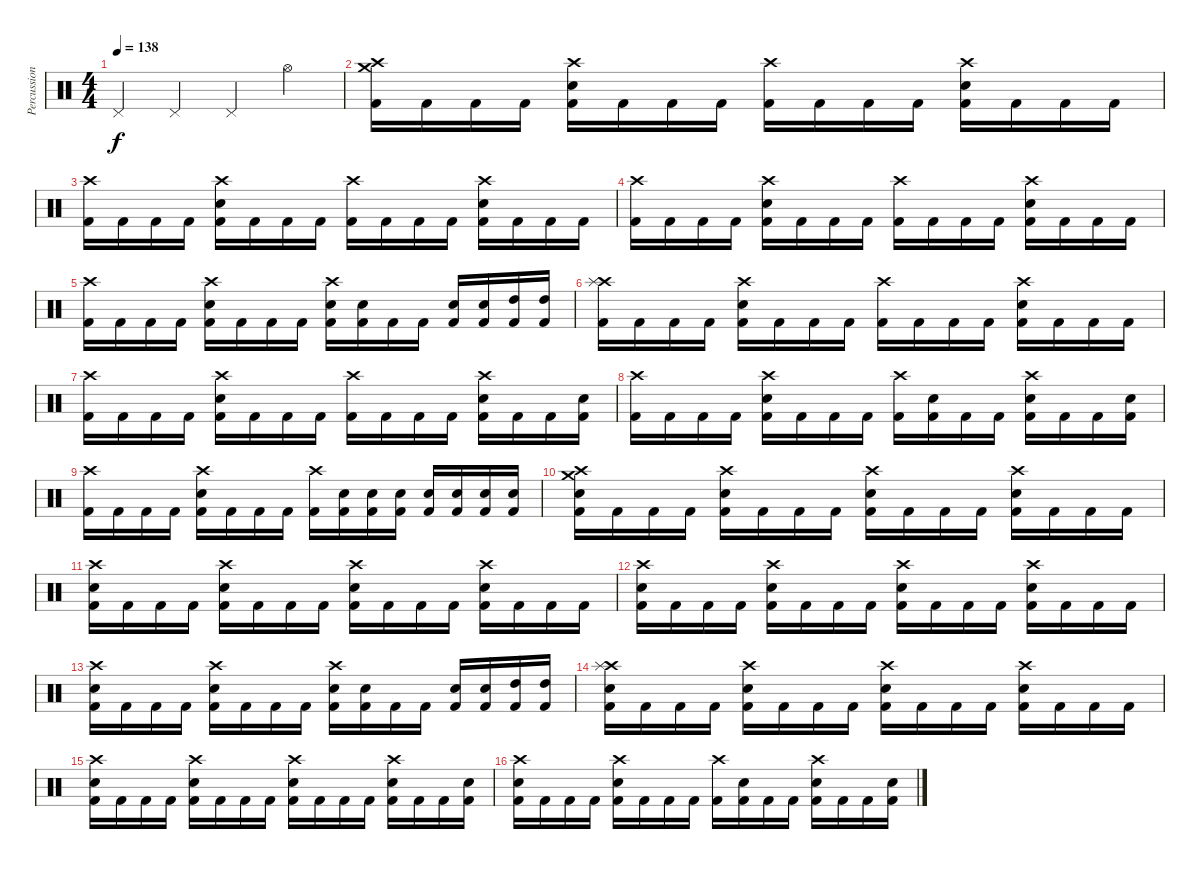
\track ("Percussion" "Percussion") {instrument percussion}
\staff {score}
\articulation defaults
\ts (4 4)
\tempo 138
\clef neutral
\ks c "Pedal Hi-Hat (hit)".4{dy f} "Pedal Hi-Hat (hit)".4 "Pedal Hi-Hat (hit)".4 "Hi-Hat (open)".4
|
("Crash high (hit)" "Crash medium (hit)" "Kick (hit) 2").16 "Kick (hit) 2".16 "Kick (hit) 2".16 "Kick (hit) 2".16 ("Crash high (hit)" "Electric Snare (hit)" "Kick (hit) 2").16 "Kick (hit) 2".16 "Kick (hit) 2".16 "Kick (hit) 2".16 ("Crash high (hit)" "Kick (hit) 2").16 "Kick (hit) 2".16 "Kick (hit) 2".16 "Kick (hit) 2".16 ("Crash high (hit)" "Electric Snare (hit)" "Kick (hit) 2").16 "Kick (hit) 2".16 "Kick (hit) 2".16 "Kick (hit) 2".16 |
("Crash high (hit)" "Kick (hit) 2").16 "Kick (hit) 2".16 "Kick (hit) 2".16 "Kick (hit) 2".16 ("Crash high (hit)" "Electric Snare (hit)" "Kick (hit) 2").16 "Kick (hit) 2".16 "Kick (hit) 2".16 "Kick (hit) 2".16 ("Crash high (hit)" "Kick (hit) 2").16 "Kick (hit) 2".16 "Kick (hit) 2".16 "Kick (hit) 2".16 ("Crash high (hit)" "Electric Snare (hit)" "Kick (hit) 2").16 "Kick (hit) 2".16 "Kick (hit) 2".16 "Kick (hit) 2".16 |
("Crash high (hit)" "Kick (hit) 2").16 "Kick (hit) 2".16 "Kick (hit) 2".16 "Kick (hit) 2".16 ("Crash high (hit)" "Electric Snare (hit)" "Kick (hit) 2").16 "Kick (hit) 2".16 "Kick (hit) 2".16 "Kick (hit) 2".16 ("Crash high (hit)" "Kick (hit) 2").16 "Kick (hit) 2".16 "Kick (hit) 2".16 "Kick (hit) 2".16 ("Crash high (hit)" "Electric Snare (hit)" "Kick (hit) 2").16 "Kick (hit) 2".16 "Kick (hit) 2".16 "Kick (hit) 2".16 |
("Crash high (hit)" "Kick (hit) 2").16 "Kick (hit) 2".16 "Kick (hit) 2".16 "Kick (hit) 2".16 ("Crash high (hit)" "Electric Snare (hit)" "Kick (hit) 2").16 "Kick (hit) 2".16 "Kick (hit) 2".16 "Kick (hit) 2".16 ("Crash high (hit)" "Electric Snare (hit)" "Kick (hit) 2").16 ("Electric Snare (hit)" "Kick (hit) 2").16 "Kick (hit) 2".16 "Kick (hit) 2".16 ("Electric Snare (hit)" "Kick (hit) 2").16 ("Electric Snare (hit)" "Kick (hit) 2").16 ("High Tom (hit)" "Kick (hit) 2").16 ("High Tom (hit)" "Kick (hit) 2").16 |
("Crash high (hit)" "Splash (hit)" "Kick (hit) 2").16 "Kick (hit) 2".16 "Kick (hit) 2".16 "Kick (hit) 2".16 ("Crash high (hit)" "Electric Snare (hit)" "Kick (hit) 2").16 "Kick (hit) 2".16 "Kick (hit) 2".16 "Kick (hit) 2".16 ("Crash high (hit)" "Kick (hit) 2").16 "Kick (hit) 2".16 "Kick (hit) 2".16 "Kick (hit) 2".16 ("Crash high (hit)" "Electric Snare (hit)" "Kick (hit) 2").16 "Kick (hit) 2".16 "Kick (hit) 2".16 "Kick (hit) 2".16 |
("Crash high (hit)" "Kick (hit) 2").16 "Kick (hit) 2".16 "Kick (hit) 2".16 "Kick (hit) 2".16 ("Crash high (hit)" "Electric Snare (hit)" "Kick (hit) 2").16 "Kick (hit) 2".16 "Kick (hit) 2".16 "Kick (hit) 2".16 ("Crash high (hit)" "Kick (hit) 2").16 "Kick (hit) 2".16 "Kick (hit) 2".16 "Kick (hit) 2".16 ("Crash high (hit)" "Electric Snare (hit)" "Kick (hit) 2").16 "Kick (hit) 2".16 "Kick (hit) 2".16 ("Electric Snare (hit)" "Kick (hit) 2").16 |
("Crash high (hit)" "Kick (hit) 2").16 "Kick (hit) 2".16 "Kick (hit) 2".16 "Kick (hit) 2".16 ("Crash high (hit)" "Electric Snare (hit)" "Kick (hit) 2").16 "Kick (hit) 2".16 "Kick (hit) 2".16 "Kick (hit) 2".16 ("Crash high (hit)" "Kick (hit) 2").16 ("Electric Snare (hit)" "Kick (hit) 2").16 "Kick (hit) 2".16 "Kick (hit) 2".16 ("Crash high (hit)" "Electric Snare (hit)" "Kick (hit) 2").16 "Kick (hit) 2".16 "Kick (hit) 2".16 ("Electric Snare (hit)" "Kick (hit) 2").16 |
("Crash high (hit)" "Kick (hit) 2").16 "Kick (hit) 2".16 "Kick (hit) 2".16 "Kick (hit) 2".16 ("Crash high (hit)" "Electric Snare (hit)" "Kick (hit) 2").16 "Kick (hit) 2".16 "Kick (hit) 2".16 "Kick (hit) 2".16 ("Crash high (hit)" "Kick (hit) 2").16 ("Electric Snare (hit)" "Kick (hit) 2").16 ("Electric Snare (hit)" "Kick (hit) 2").16 ("Electric Snare (hit)" "Kick (hit) 2").16 ("Electric Snare (hit)" "Kick (hit) 2").16 ("Electric Snare (hit)" "Kick (hit) 2").16 ("Electric Snare (hit)" "Kick (hit) 2").16 ("Electric Snare (hit)" "Kick (hit) 2").16 |
("Crash high (hit)" "Crash medium (hit)" "Electric Snare (hit)" "Kick (hit) 2").16 "Kick (hit) 2".16 "Kick (hit) 2".16 "Kick (hit) 2".16 ("Crash high (hit)" "Electric Snare (hit)" "Kick (hit) 2").16 "Kick (hit) 2".16 "Kick (hit) 2".16 "Kick (hit) 2".16 ("Crash high (hit)" "Electric Snare (hit)" "Kick (hit) 2").16 "Kick (hit) 2".16 "Kick (hit) 2".16 "Kick (hit) 2".16 ("Crash high (hit)" "Electric Snare (hit)" "Kick (hit) 2").16 "Kick (hit) 2".16 "Kick (hit) 2".16 "Kick (hit) 2".16 |
("Crash high (hit)" "Electric Snare (hit)" "Kick (hit) 2").16 "Kick (hit) 2".16 "Kick (hit) 2".16 "Kick (hit) 2".16 ("Crash high (hit)" "Electric Snare (hit)" "Kick (hit) 2").16 "Kick (hit) 2".16 "Kick (hit) 2".16 "Kick (hit) 2".16 ("Crash high (hit)" "Electric Snare (hit)" "Kick (hit) 2").16 "Kick (hit) 2".16 "Kick (hit) 2".16 "Kick (hit) 2".16 ("Crash high (hit)" "Electric Snare (hit)" "Kick (hit) 2").16 "Kick (hit) 2".16 "Kick (hit) 2".16 "Kick (hit) 2".16 |
("Crash high (hit)" "Electric Snare (hit)" "Kick (hit) 2").16 "Kick (hit) 2".16 "Kick (hit) 2".16 "Kick (hit) 2".16 ("Crash high (hit)" "Electric Snare (hit)" "Kick (hit) 2").16 "Kick (hit) 2".16 "Kick (hit) 2".16 "Kick (hit) 2".16 ("Crash high (hit)" "Electric Snare (hit)" "Kick (hit) 2").16 "Kick (hit) 2".16 "Kick (hit) 2".16 "Kick (hit) 2".16 ("Crash high (hit)" "Electric Snare (hit)" "Kick (hit) 2").16 "Kick (hit) 2".16 "Kick (hit) 2".16 "Kick (hit) 2".16 |
("Crash high (hit)" "Electric Snare (hit)" "Kick (hit) 2").16 "Kick (hit) 2".16 "Kick (hit) 2".16 "Kick (hit) 2".16 ("Crash high (hit)" "Electric Snare (hit)" "Kick (hit) 2").16 "Kick (hit) 2".16 "Kick (hit) 2".16 "Kick (hit) 2".16 ("Crash high (hit)" "Electric Snare (hit)" "Kick (hit) 2").16 ("Electric Snare (hit)" "Kick (hit) 2").16 "Kick (hit) 2".16 "Kick (hit) 2".16 ("Electric Snare (hit)" "Kick (hit) 2").16 ("Electric Snare (hit)" "Kick (hit) 2").16 ("High Tom (hit)" "Kick (hit) 2").16 ("High Tom (hit)" "Kick (hit) 2").16 |
("Crash high (hit)" "Splash (hit)" "Electric Snare (hit)" "Kick (hit) 2").16 "Kick (hit) 2".16 "Kick (hit) 2".16 "Kick (hit) 2".16 ("Crash high (hit)" "Electric Snare (hit)" "Kick (hit) 2").16 "Kick (hit) 2".16 "Kick (hit) 2".16 "Kick (hit) 2".16 ("Crash high (hit)" "Electric Snare (hit)" "Kick (hit) 2").16 "Kick (hit) 2".16 "Kick (hit) 2".16 "Kick (hit) 2".16 ("Crash high (hit)" "Electric Snare (hit)" "Kick (hit) 2").16 "Kick (hit) 2".16 "Kick (hit) 2".16 "Kick (hit) 2".16 |
("Crash high (hit)" "Electric Snare (hit)" "Kick (hit) 2").16 "Kick (hit) 2".16 "Kick (hit) 2".16 "Kick (hit) 2".16 ("Crash high (hit)" "Electric Snare (hit)" "Kick (hit) 2").16 "Kick (hit) 2".16 "Kick (hit) 2".16 "Kick (hit) 2".16 ("Crash high (hit)" "Electric Snare (hit)" "Kick (hit) 2").16 "Kick (hit) 2".16 "Kick (hit) 2".16 "Kick (hit) 2".16 ("Crash high (hit)" "Electric Snare (hit)" "Kick (hit) 2").16 "Kick (hit) 2".16 "Kick (hit) 2".16 ("Electric Snare (hit)" "Kick (hit) 2").16 |
("Crash high (hit)" "Electric Snare (hit)" "Kick (hit) 2").16 "Kick (hit) 2".16 "Kick (hit) 2".16 "Kick (hit) 2".16 ("Crash high (hit)" "Electric Snare (hit)" "Kick (hit) 2").16 "Kick (hit) 2".16 "Kick (hit) 2".16 "Kick (hit) 2".16 ("Crash high (hit)" "Kick (hit) 2").16 ("Electric Snare (hit)" "Kick (hit) 2").16 "Kick (hit) 2".16 "Kick (hit) 2".16 ("Crash high (hit)" "Electric Snare (hit)" "Kick (hit) 2").16 "Kick (hit) 2".16 "Kick (hit) 2".16 ("Electric Snare (hit)" "Kick (hit) 2").16
